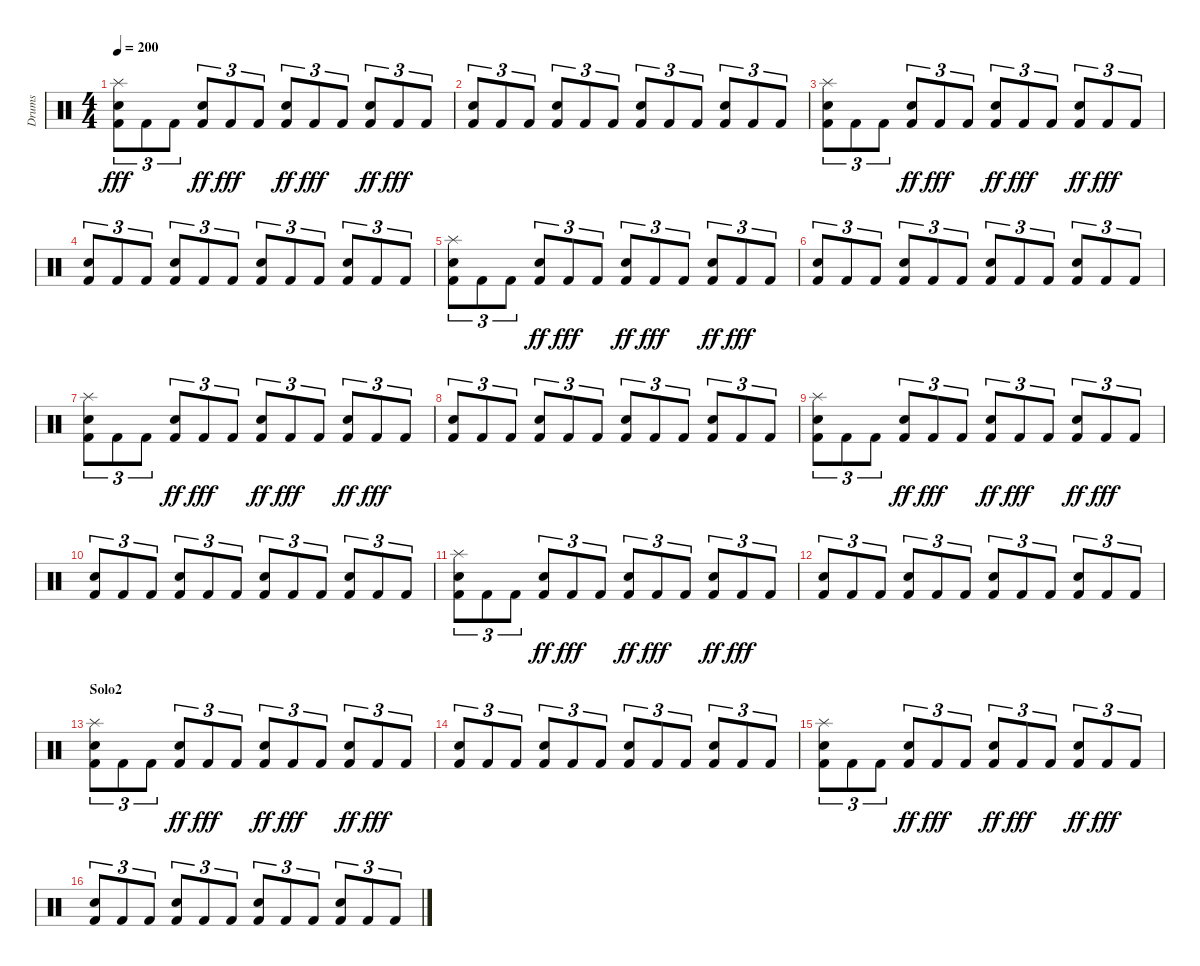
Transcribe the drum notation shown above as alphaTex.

\track ("Drums" "Drums") {instrument percussion}
\staff {score}
\articulation defaults
\ts (4 4)
\tempo 200
\clef neutral
\ks c
("Kick (hit) 2" "Snare (hit) 2" "Splash (hit)").8{tu (3 2) dy fff} "Kick (hit) 2".8{tu (3 2)} "Kick (hit) 2".8{tu (3 2)} ("Kick (hit) 2" "Electric Snare (hit)").8{tu (3 2) dy ff} "Kick (hit) 2".8{tu (3 2) dy fff} "Kick (hit) 2".8{tu (3 2)} ("Kick (hit) 2" "Electric Snare (hit)").8{tu (3 2) dy ff} "Kick (hit) 2".8{tu (3 2) dy fff} "Kick (hit) 2".8{tu (3 2)} ("Kick (hit) 2" "Electric Snare (hit)").8{tu (3 2) dy ff} "Kick (hit) 2".8{tu (3 2) dy fff} "Kick (hit) 2".8{tu (3 2)} |
("Electric Snare (hit)" "Kick (hit) 2").8{tu (3 2)} "Kick (hit) 2".8{tu (3 2)} "Kick (hit) 2".8{tu (3 2)} ("Electric Snare (hit)" "Kick (hit) 2").8{tu (3 2)} "Kick (hit) 2".8{tu (3 2)} "Kick (hit) 2".8{tu (3 2)} ("Electric Snare (hit)" "Kick (hit) 2").8{tu (3 2)} "Kick (hit) 2".8{tu (3 2)} "Kick (hit) 2".8{tu (3 2)} ("Electric Snare (hit)" "Kick (hit) 2").8{tu (3 2)} "Kick (hit) 2".8{tu (3 2)} "Kick (hit) 2".8{tu (3 2)} |
("Kick (hit) 2" "Snare (hit) 2" "Splash (hit)").8{tu (3 2)} "Kick (hit) 2".8{tu (3 2)} "Kick (hit) 2".8{tu (3 2)} ("Kick (hit) 2" "Electric Snare (hit)").8{tu (3 2) dy ff} "Kick (hit) 2".8{tu (3 2) dy fff} "Kick (hit) 2".8{tu (3 2)} ("Kick (hit) 2" "Electric Snare (hit)").8{tu (3 2) dy ff} "Kick (hit) 2".8{tu (3 2) dy fff} "Kick (hit) 2".8{tu (3 2)} ("Kick (hit) 2" "Electric Snare (hit)").8{tu (3 2) dy ff} "Kick (hit) 2".8{tu (3 2) dy fff} "Kick (hit) 2".8{tu (3 2)} |
("Electric Snare (hit)" "Kick (hit) 2").8{tu (3 2)} "Kick (hit) 2".8{tu (3 2)} "Kick (hit) 2".8{tu (3 2)} ("Electric Snare (hit)" "Kick (hit) 2").8{tu (3 2)} "Kick (hit) 2".8{tu (3 2)} "Kick (hit) 2".8{tu (3 2)} ("Electric Snare (hit)" "Kick (hit) 2").8{tu (3 2)} "Kick (hit) 2".8{tu (3 2)} "Kick (hit) 2".8{tu (3 2)} ("Electric Snare (hit)" "Kick (hit) 2").8{tu (3 2)} "Kick (hit) 2".8{tu (3 2)} "Kick (hit) 2".8{tu (3 2)} |
("Kick (hit) 2" "Snare (hit) 2" "Splash (hit)").8{tu (3 2)} "Kick (hit) 2".8{tu (3 2)} "Kick (hit) 2".8{tu (3 2)} ("Kick (hit) 2" "Electric Snare (hit)").8{tu (3 2) dy ff} "Kick (hit) 2".8{tu (3 2) dy fff} "Kick (hit) 2".8{tu (3 2)} ("Kick (hit) 2" "Electric Snare (hit)").8{tu (3 2) dy ff} "Kick (hit) 2".8{tu (3 2) dy fff} "Kick (hit) 2".8{tu (3 2)} ("Kick (hit) 2" "Electric Snare (hit)").8{tu (3 2) dy ff} "Kick (hit) 2".8{tu (3 2) dy fff} "Kick (hit) 2".8{tu (3 2)} |
("Electric Snare (hit)" "Kick (hit) 2").8{tu (3 2)} "Kick (hit) 2".8{tu (3 2)} "Kick (hit) 2".8{tu (3 2)} ("Electric Snare (hit)" "Kick (hit) 2").8{tu (3 2)} "Kick (hit) 2".8{tu (3 2)} "Kick (hit) 2".8{tu (3 2)} ("Electric Snare (hit)" "Kick (hit) 2").8{tu (3 2)} "Kick (hit) 2".8{tu (3 2)} "Kick (hit) 2".8{tu (3 2)} ("Electric Snare (hit)" "Kick (hit) 2").8{tu (3 2)} "Kick (hit) 2".8{tu (3 2)} "Kick (hit) 2".8{tu (3 2)} |
("Kick (hit) 2" "Snare (hit) 2" "Splash (hit)").8{tu (3 2)} "Kick (hit) 2".8{tu (3 2)} "Kick (hit) 2".8{tu (3 2)} ("Kick (hit) 2" "Electric Snare (hit)").8{tu (3 2) dy ff} "Kick (hit) 2".8{tu (3 2) dy fff} "Kick (hit) 2".8{tu (3 2)} ("Kick (hit) 2" "Electric Snare (hit)").8{tu (3 2) dy ff} "Kick (hit) 2".8{tu (3 2) dy fff} "Kick (hit) 2".8{tu (3 2)} ("Kick (hit) 2" "Electric Snare (hit)").8{tu (3 2) dy ff} "Kick (hit) 2".8{tu (3 2) dy fff} "Kick (hit) 2".8{tu (3 2)} |
("Electric Snare (hit)" "Kick (hit) 2").8{tu (3 2)} "Kick (hit) 2".8{tu (3 2)} "Kick (hit) 2".8{tu (3 2)} ("Electric Snare (hit)" "Kick (hit) 2").8{tu (3 2)} "Kick (hit) 2".8{tu (3 2)} "Kick (hit) 2".8{tu (3 2)} ("Electric Snare (hit)" "Kick (hit) 2").8{tu (3 2)} "Kick (hit) 2".8{tu (3 2)} "Kick (hit) 2".8{tu (3 2)} ("Electric Snare (hit)" "Kick (hit) 2").8{tu (3 2)} "Kick (hit) 2".8{tu (3 2)} "Kick (hit) 2".8{tu (3 2)} |
("Kick (hit) 2" "Snare (hit) 2" "Splash (hit)").8{tu (3 2)} "Kick (hit) 2".8{tu (3 2)} "Kick (hit) 2".8{tu (3 2)} ("Kick (hit) 2" "Electric Snare (hit)").8{tu (3 2) dy ff} "Kick (hit) 2".8{tu (3 2) dy fff} "Kick (hit) 2".8{tu (3 2)} ("Kick (hit) 2" "Electric Snare (hit)").8{tu (3 2) dy ff} "Kick (hit) 2".8{tu (3 2) dy fff} "Kick (hit) 2".8{tu (3 2)} ("Kick (hit) 2" "Electric Snare (hit)").8{tu (3 2) dy ff} "Kick (hit) 2".8{tu (3 2) dy fff} "Kick (hit) 2".8{tu (3 2)} |
("Electric Snare (hit)" "Kick (hit) 2").8{tu (3 2)} "Kick (hit) 2".8{tu (3 2)} "Kick (hit) 2".8{tu (3 2)} ("Electric Snare (hit)" "Kick (hit) 2").8{tu (3 2)} "Kick (hit) 2".8{tu (3 2)} "Kick (hit) 2".8{tu (3 2)} ("Electric Snare (hit)" "Kick (hit) 2").8{tu (3 2)} "Kick (hit) 2".8{tu (3 2)} "Kick (hit) 2".8{tu (3 2)} ("Electric Snare (hit)" "Kick (hit) 2").8{tu (3 2)} "Kick (hit) 2".8{tu (3 2)} "Kick (hit) 2".8{tu (3 2)} |
("Kick (hit) 2" "Snare (hit) 2" "Splash (hit)").8{tu (3 2)} "Kick (hit) 2".8{tu (3 2)} "Kick (hit) 2".8{tu (3 2)} ("Kick (hit) 2" "Electric Snare (hit)").8{tu (3 2) dy ff} "Kick (hit) 2".8{tu (3 2) dy fff} "Kick (hit) 2".8{tu (3 2)} ("Kick (hit) 2" "Electric Snare (hit)").8{tu (3 2) dy ff} "Kick (hit) 2".8{tu (3 2) dy fff} "Kick (hit) 2".8{tu (3 2)} ("Kick (hit) 2" "Electric Snare (hit)").8{tu (3 2) dy ff} "Kick (hit) 2".8{tu (3 2) dy fff} "Kick (hit) 2".8{tu (3 2)} |
("Electric Snare (hit)" "Kick (hit) 2").8{tu (3 2)} "Kick (hit) 2".8{tu (3 2)} "Kick (hit) 2".8{tu (3 2)} ("Electric Snare (hit)" "Kick (hit) 2").8{tu (3 2)} "Kick (hit) 2".8{tu (3 2)} "Kick (hit) 2".8{tu (3 2)} ("Electric Snare (hit)" "Kick (hit) 2").8{tu (3 2)} "Kick (hit) 2".8{tu (3 2)} "Kick (hit) 2".8{tu (3 2)} ("Electric Snare (hit)" "Kick (hit) 2").8{tu (3 2)} "Kick (hit) 2".8{tu (3 2)} "Kick (hit) 2".8{tu (3 2)} |
\section ("" "Solo2")
("Kick (hit) 2" "Snare (hit) 2" "Splash (hit)").8{tu (3 2)} "Kick (hit) 2".8{tu (3 2)} "Kick (hit) 2".8{tu (3 2)} ("Kick (hit) 2" "Electric Snare (hit)").8{tu (3 2) dy ff} "Kick (hit) 2".8{tu (3 2) dy fff} "Kick (hit) 2".8{tu (3 2)} ("Kick (hit) 2" "Electric Snare (hit)").8{tu (3 2) dy ff} "Kick (hit) 2".8{tu (3 2) dy fff} "Kick (hit) 2".8{tu (3 2)} ("Kick (hit) 2" "Electric Snare (hit)").8{tu (3 2) dy ff} "Kick (hit) 2".8{tu (3 2) dy fff} "Kick (hit) 2".8{tu (3 2)} |
("Electric Snare (hit)" "Kick (hit) 2").8{tu (3 2)} "Kick (hit) 2".8{tu (3 2)} "Kick (hit) 2".8{tu (3 2)} ("Electric Snare (hit)" "Kick (hit) 2").8{tu (3 2)} "Kick (hit) 2".8{tu (3 2)} "Kick (hit) 2".8{tu (3 2)} ("Electric Snare (hit)" "Kick (hit) 2").8{tu (3 2)} "Kick (hit) 2".8{tu (3 2)} "Kick (hit) 2".8{tu (3 2)} ("Electric Snare (hit)" "Kick (hit) 2").8{tu (3 2)} "Kick (hit) 2".8{tu (3 2)} "Kick (hit) 2".8{tu (3 2)} |
("Kick (hit) 2" "Snare (hit) 2" "Splash (hit)").8{tu (3 2)} "Kick (hit) 2".8{tu (3 2)} "Kick (hit) 2".8{tu (3 2)} ("Kick (hit) 2" "Electric Snare (hit)").8{tu (3 2) dy ff} "Kick (hit) 2".8{tu (3 2) dy fff} "Kick (hit) 2".8{tu (3 2)} ("Kick (hit) 2" "Electric Snare (hit)").8{tu (3 2) dy ff} "Kick (hit) 2".8{tu (3 2) dy fff} "Kick (hit) 2".8{tu (3 2)} ("Kick (hit) 2" "Electric Snare (hit)").8{tu (3 2) dy ff} "Kick (hit) 2".8{tu (3 2) dy fff} "Kick (hit) 2".8{tu (3 2)} |
("Electric Snare (hit)" "Kick (hit) 2").8{tu (3 2)} "Kick (hit) 2".8{tu (3 2)} "Kick (hit) 2".8{tu (3 2)} ("Electric Snare (hit)" "Kick (hit) 2").8{tu (3 2)} "Kick (hit) 2".8{tu (3 2)} "Kick (hit) 2".8{tu (3 2)} ("Electric Snare (hit)" "Kick (hit) 2").8{tu (3 2)} "Kick (hit) 2".8{tu (3 2)} "Kick (hit) 2".8{tu (3 2)} ("Electric Snare (hit)" "Kick (hit) 2").8{tu (3 2)} "Kick (hit) 2".8{tu (3 2)} "Kick (hit) 2".8{tu (3 2)}
